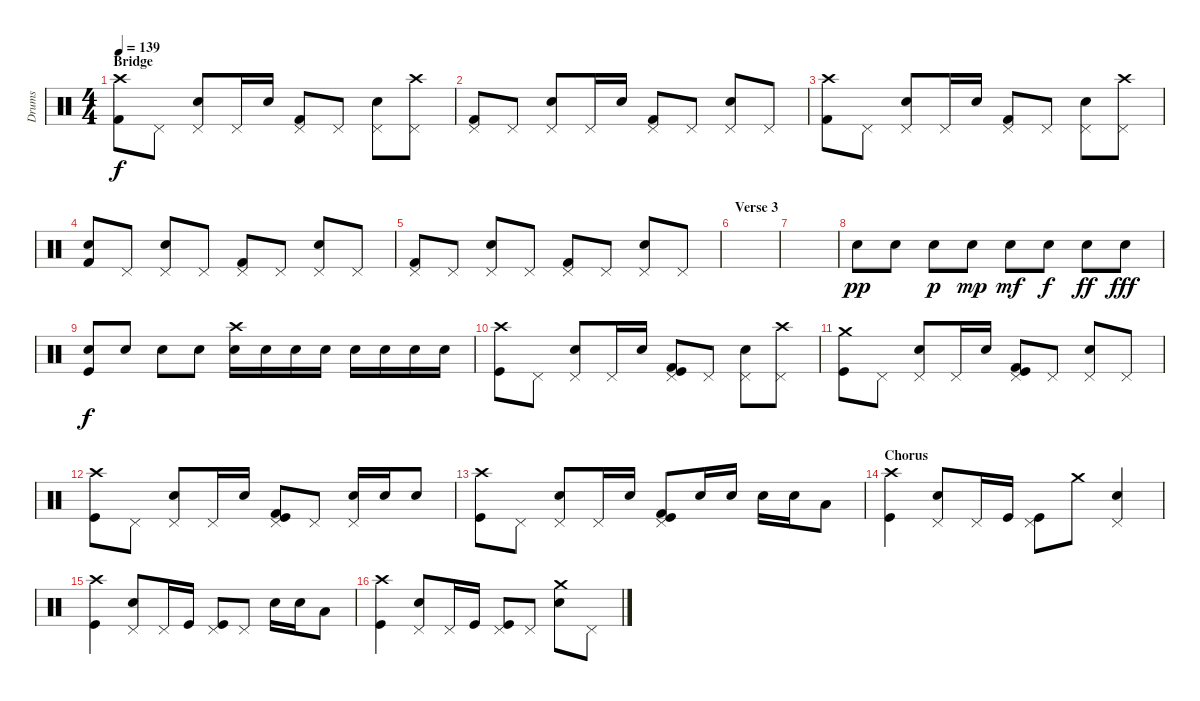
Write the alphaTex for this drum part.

\track ("Drums" "Drums") {instrument percussion}
\staff {score}
\articulation defaults
\ts (4 4)
\section ("" "Bridge")
\tempo 139
\clef neutral
\ks c
("Crash high (hit)" "Kick (hit) 2").8{dy f} "Pedal Hi-Hat (hit)".8 ("Pedal Hi-Hat (hit)" "Electric Snare (hit)").8 "Pedal Hi-Hat (hit)".16 "Electric Snare (hit)".16 ("Pedal Hi-Hat (hit)" "Kick (hit) 2").8 "Pedal Hi-Hat (hit)".8 ("Pedal Hi-Hat (hit)" "Electric Snare (hit)").8 ("Pedal Hi-Hat (hit)" "Crash high (hit)").8 |
("Pedal Hi-Hat (hit)" "Kick (hit) 2").8 "Pedal Hi-Hat (hit)".8 ("Pedal Hi-Hat (hit)" "Electric Snare (hit)").8 "Pedal Hi-Hat (hit)".16 "Electric Snare (hit)".16 ("Pedal Hi-Hat (hit)" "Kick (hit) 2").8 "Pedal Hi-Hat (hit)".8 ("Pedal Hi-Hat (hit)" "Electric Snare (hit)").8 "Pedal Hi-Hat (hit)".8 |
("Crash high (hit)" "Kick (hit) 2").8 "Pedal Hi-Hat (hit)".8 ("Pedal Hi-Hat (hit)" "Electric Snare (hit)").8 "Pedal Hi-Hat (hit)".16 "Electric Snare (hit)".16 ("Pedal Hi-Hat (hit)" "Kick (hit) 2").8 "Pedal Hi-Hat (hit)".8 ("Pedal Hi-Hat (hit)" "Electric Snare (hit)").8 ("Pedal Hi-Hat (hit)" "Crash high (hit)").8 |
("Hand Clap (hit)" "Kick (hit) 2").8 "Pedal Hi-Hat (hit)".8 ("Pedal Hi-Hat (hit)" "Electric Snare (hit)").8 "Pedal Hi-Hat (hit)".8 ("Pedal Hi-Hat (hit)" "Kick (hit) 2").8 "Pedal Hi-Hat (hit)".8 ("Pedal Hi-Hat (hit)" "Electric Snare (hit)").8 "Pedal Hi-Hat (hit)".8 |
("Pedal Hi-Hat (hit)" "Kick (hit) 2").8 "Pedal Hi-Hat (hit)".8 ("Pedal Hi-Hat (hit)" "Electric Snare (hit)").8 "Pedal Hi-Hat (hit)".8 ("Pedal Hi-Hat (hit)" "Kick (hit) 2").8 "Pedal Hi-Hat (hit)".8 ("Pedal Hi-Hat (hit)" "Electric Snare (hit)").8 "Pedal Hi-Hat (hit)".8 |
\section ("" "Verse 3")
|
|
"Electric Snare (hit)".8{dy pp} "Electric Snare (hit)".8 "Electric Snare (hit)".8{dy p} "Electric Snare (hit)".8{dy mp} "Electric Snare (hit)".8{dy mf} "Electric Snare (hit)".8{dy f} "Electric Snare (hit)".8{dy ff} "Electric Snare (hit)".8{dy fff} |
("Electric Snare (hit)" "Kick (hit)").8{dy f} "Electric Snare (hit)".8 "Electric Snare (hit)".8 "Electric Snare (hit)".8 ("Electric Snare (hit)" "Crash high (hit)").16 "Electric Snare (hit)".16 "Electric Snare (hit)".16 "Electric Snare (hit)".16 "Electric Snare (hit)".16 "Electric Snare (hit)".16 "Electric Snare (hit)".16 "Electric Snare (hit)".16 |
("Crash high (hit)" "Kick (hit)").8 "Pedal Hi-Hat (hit)".8 ("Pedal Hi-Hat (hit)" "Electric Snare (hit)").8 "Pedal Hi-Hat (hit)".16 "Electric Snare (hit)".16 ("Pedal Hi-Hat (hit)" "Kick (hit)" "Kick (hit) 2").8 "Pedal Hi-Hat (hit)".8 ("Pedal Hi-Hat (hit)" "Electric Snare (hit)").8 ("Crash high (hit)" "Pedal Hi-Hat (hit)").8 |
("Crash medium (hit)" "Kick (hit)").8 "Pedal Hi-Hat (hit)".8 ("Pedal Hi-Hat (hit)" "Electric Snare (hit)").8 "Pedal Hi-Hat (hit)".16 "Electric Snare (hit)".16 ("Pedal Hi-Hat (hit)" "Kick (hit)" "Kick (hit) 2").8 "Pedal Hi-Hat (hit)".8 ("Pedal Hi-Hat (hit)" "Electric Snare (hit)").8 "Pedal Hi-Hat (hit)".8 |
("Crash high (hit)" "Kick (hit)").8 "Pedal Hi-Hat (hit)".8 ("Pedal Hi-Hat (hit)" "Electric Snare (hit)").8 "Pedal Hi-Hat (hit)".16 "Electric Snare (hit)".16 ("Pedal Hi-Hat (hit)" "Kick (hit)" "Kick (hit) 2").8 "Pedal Hi-Hat (hit)".8 ("Pedal Hi-Hat (hit)" "Electric Snare (hit)").16 "Electric Snare (hit)".16 "Electric Snare (hit)".8 |
("Crash high (hit)" "Kick (hit)").8 "Pedal Hi-Hat (hit)".8 ("Pedal Hi-Hat (hit)" "Electric Snare (hit)").8 "Pedal Hi-Hat (hit)".16 "Electric Snare (hit)".16 ("Pedal Hi-Hat (hit)" "Kick (hit)" "Kick (hit) 2").8 "Electric Snare (hit)".16 "Electric Snare (hit)".16 "Electric Snare (hit)".16 "Electric Snare (hit)".16 "Low Tom (hit)".8 |
\section ("" "Chorus")
("Crash high (hit)" "Kick (hit)").4 ("Pedal Hi-Hat (hit)" "Electric Snare (hit)").8 "Pedal Hi-Hat (hit)".16 "Kick (hit)".16 ("Pedal Hi-Hat (hit)" "Kick (hit)").8 "Crash medium (hit)".8 ("Pedal Hi-Hat (hit)" "Electric Snare (hit)").4 |
("Crash high (hit)" "Kick (hit)").4 ("Pedal Hi-Hat (hit)" "Electric Snare (hit)").8 "Pedal Hi-Hat (hit)".16 "Kick (hit)".16 ("Pedal Hi-Hat (hit)" "Kick (hit)").8 "Pedal Hi-Hat (hit)".8 "Electric Snare (hit)".16 "Electric Snare (hit)".16 "Low Tom (hit)".8 |
("Crash high (hit)" "Kick (hit)").4 ("Pedal Hi-Hat (hit)" "Electric Snare (hit)").8 "Pedal Hi-Hat (hit)".16 "Kick (hit)".16 ("Pedal Hi-Hat (hit)" "Kick (hit)").8 "Pedal Hi-Hat (hit)".8 ("Crash medium (hit)" "Electric Snare (hit)").8 "Pedal Hi-Hat (hit)".8
